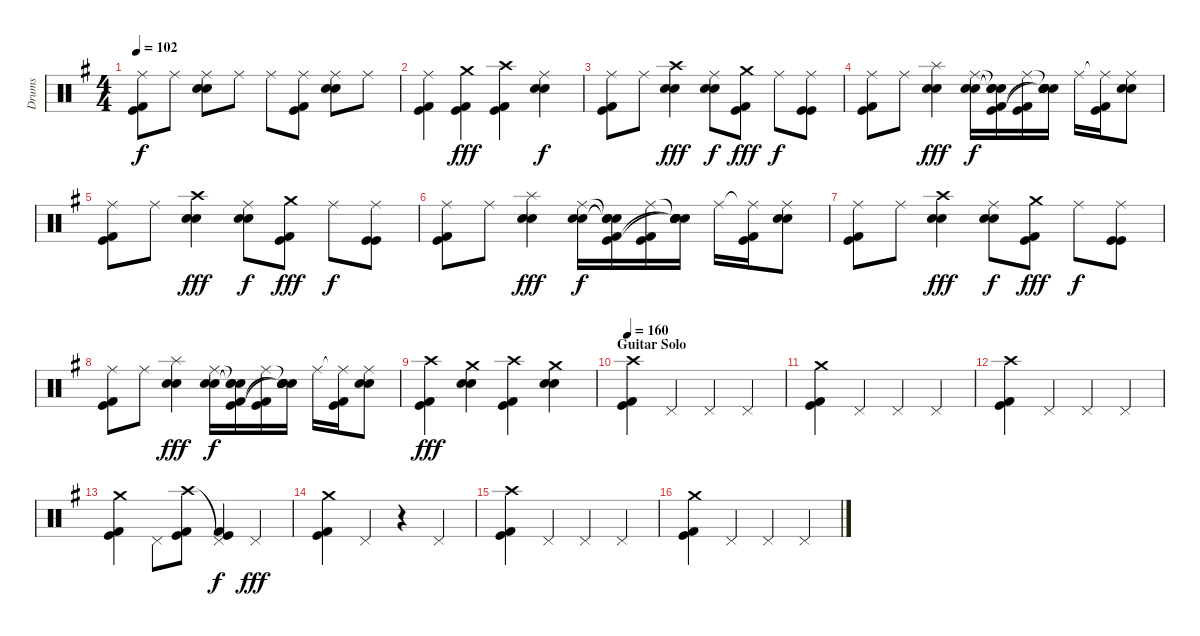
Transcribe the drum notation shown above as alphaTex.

\track ("Drums" "Drums") {instrument percussion}
\staff {score}
\articulation defaults
\ts (4 4)
\tempo 102
\clef neutral
\ks g
("Ride (middle)" "Kick (hit)" "Kick (hit) 2").8{dy f} "Ride (middle)".8 ("Ride (middle)" "Electric Snare (hit)" "Snare (hit) 2").8 "Ride (middle)".8 "Ride (middle)".8 ("Ride (middle)" "Kick (hit)" "Kick (hit) 2").8 ("Ride (middle)" "Electric Snare (hit)" "Snare (hit) 2").8 "Ride (middle)".8 |
("Ride (middle)" "Kick (hit)" "Kick (hit) 2").4{volume 14} ("Crash medium (hit)" "Kick (hit)" "Kick (hit) 2").4{dy fff} ("Crash high (hit)" "Kick (hit)" "Kick (hit) 2").4 ("Ride (middle)" "Electric Snare (hit)" "Snare (hit) 2").4{dy f} |
("Ride (middle)" "Kick (hit)" "Kick (hit) 2").8 "Ride (middle)".8 ("Crash high (hit)" "Electric Snare (hit)" "Snare (hit) 2").4{dy fff} ("Ride (middle)" "Electric Snare (hit)" "Snare (hit) 2").8{dy f} ("Crash medium (hit)" "Kick (hit)" "Kick (hit) 2").8{dy fff} "Ride (middle)".8{dy f} ("Ride (middle)" "Kick (hit)" "Kick (hit)").8 |
("Ride (middle)" "Kick (hit)" "Kick (hit) 2").8 "Ride (middle)".8 ("Splash (hit)" "Electric Snare (hit)" "Snare (hit) 2").4{dy fff} ("Ride (middle)" "Electric Snare (hit)" "Snare (hit) 2").16{dy f} ("Snare (hit)"{t} "Snare (hit)"{t} "Snare (hit)"{t} "Kick (hit)" "Kick (hit) 2").16 ("Ride (middle)" "Kick (hit)" "Kick (hit) 2").16 ("Snare (hit)"{t} "Electric Snare (hit)" "Snare (hit) 2" "Snare (hit)"{t} "Snare (hit)"{t}).16 "Ride (middle)".16 ("Ride (middle)"{t} "Kick (hit)" "Kick (hit) 2").16 ("Ride (middle)" "Electric Snare (hit)" "Snare (hit) 2").8 |
("Ride (middle)" "Kick (hit)" "Kick (hit) 2").8 "Ride (middle)".8 ("Crash high (hit)" "Electric Snare (hit)" "Snare (hit) 2").4{dy fff} ("Ride (middle)" "Electric Snare (hit)" "Snare (hit) 2").8{dy f} ("Crash medium (hit)" "Kick (hit)" "Kick (hit) 2").8{dy fff} "Ride (middle)".8{dy f} ("Ride (middle)" "Kick (hit)" "Kick (hit)").8 |
("Ride (middle)" "Kick (hit)" "Kick (hit) 2").8 "Ride (middle)".8 ("Splash (hit)" "Electric Snare (hit)" "Snare (hit) 2").4{dy fff} ("Ride (middle)" "Electric Snare (hit)" "Snare (hit) 2").16{dy f} ("Snare (hit)"{t} "Snare (hit)"{t} "Snare (hit)"{t} "Kick (hit)" "Kick (hit) 2").16 ("Ride (middle)" "Kick (hit)" "Kick (hit) 2").16 ("Snare (hit)"{t} "Electric Snare (hit)" "Snare (hit) 2" "Snare (hit)"{t} "Snare (hit)"{t}).16 "Ride (middle)".16 ("Ride (middle)"{t} "Kick (hit)" "Kick (hit) 2").16 ("Ride (middle)" "Electric Snare (hit)" "Snare (hit) 2").8 |
("Ride (middle)" "Kick (hit)" "Kick (hit) 2").8 "Ride (middle)".8 ("Crash high (hit)" "Electric Snare (hit)" "Snare (hit) 2").4{dy fff} ("Ride (middle)" "Electric Snare (hit)" "Snare (hit) 2").8{dy f} ("Crash medium (hit)" "Kick (hit)" "Kick (hit) 2").8{dy fff} "Ride (middle)".8{dy f} ("Ride (middle)" "Kick (hit)" "Kick (hit)").8 |
("Ride (middle)" "Kick (hit)" "Kick (hit) 2").8 "Ride (middle)".8 ("Splash (hit)" "Electric Snare (hit)" "Snare (hit) 2").4{dy fff} ("Ride (middle)" "Electric Snare (hit)" "Snare (hit) 2").16{dy f} ("Snare (hit)"{t} "Snare (hit)"{t} "Snare (hit)"{t} "Kick (hit)" "Kick (hit) 2").16 ("Ride (middle)" "Kick (hit)" "Kick (hit) 2").16 ("Snare (hit)"{t} "Electric Snare (hit)" "Snare (hit) 2" "Snare (hit)"{t} "Snare (hit)"{t}).16 "Ride (middle)".16 ("Ride (middle)"{t} "Kick (hit)" "Kick (hit) 2").16 ("Ride (middle)" "Electric Snare (hit)" "Snare (hit) 2").8 |
("Crash high (hit)" "Kick (hit)" "Kick (hit) 2").4{dy fff} ("Crash medium (hit)" "Electric Snare (hit)" "Snare (hit) 2").4 ("Crash high (hit)" "Kick (hit)" "Kick (hit) 2").4 ("Crash medium (hit)" "Electric Snare (hit)" "Snare (hit) 2").4 |
\section ("" "Guitar Solo")
\tempo 160
("Crash high (hit)" "Kick (hit)" "Kick (hit) 2").4 "Pedal Hi-Hat (hit)".4 "Pedal Hi-Hat (hit)".4 "Pedal Hi-Hat (hit)".4 |
("Crash medium (hit)" "Kick (hit)" "Kick (hit) 2").4 "Pedal Hi-Hat (hit)".4 "Pedal Hi-Hat (hit)".4 "Pedal Hi-Hat (hit)".4 |
("Crash high (hit)" "Kick (hit)" "Kick (hit) 2").4 "Pedal Hi-Hat (hit)".4 "Pedal Hi-Hat (hit)".4 "Pedal Hi-Hat (hit)".4 |
("Crash medium (hit)" "Kick (hit)" "Kick (hit) 2").4 "Pedal Hi-Hat (hit)".8 ("Crash high (hit)" "Kick (hit)" "Kick (hit) 2").8 ("Pedal Hi-Hat (hit)"{t} "Kick (hit)" "Kick (hit) 2").4{dy f} "Pedal Hi-Hat (hit)".4{dy fff} |
("Crash medium (hit)" "Kick (hit)" "Kick (hit) 2").4 "Pedal Hi-Hat (hit)".4 r.4 "Pedal Hi-Hat (hit)".4 |
("Crash high (hit)" "Kick (hit)" "Kick (hit) 2").4 "Pedal Hi-Hat (hit)".4 "Pedal Hi-Hat (hit)".4 "Pedal Hi-Hat (hit)".4 |
("Crash medium (hit)" "Kick (hit)" "Kick (hit) 2").4 "Pedal Hi-Hat (hit)".4 "Pedal Hi-Hat (hit)".4 "Pedal Hi-Hat (hit)".4
